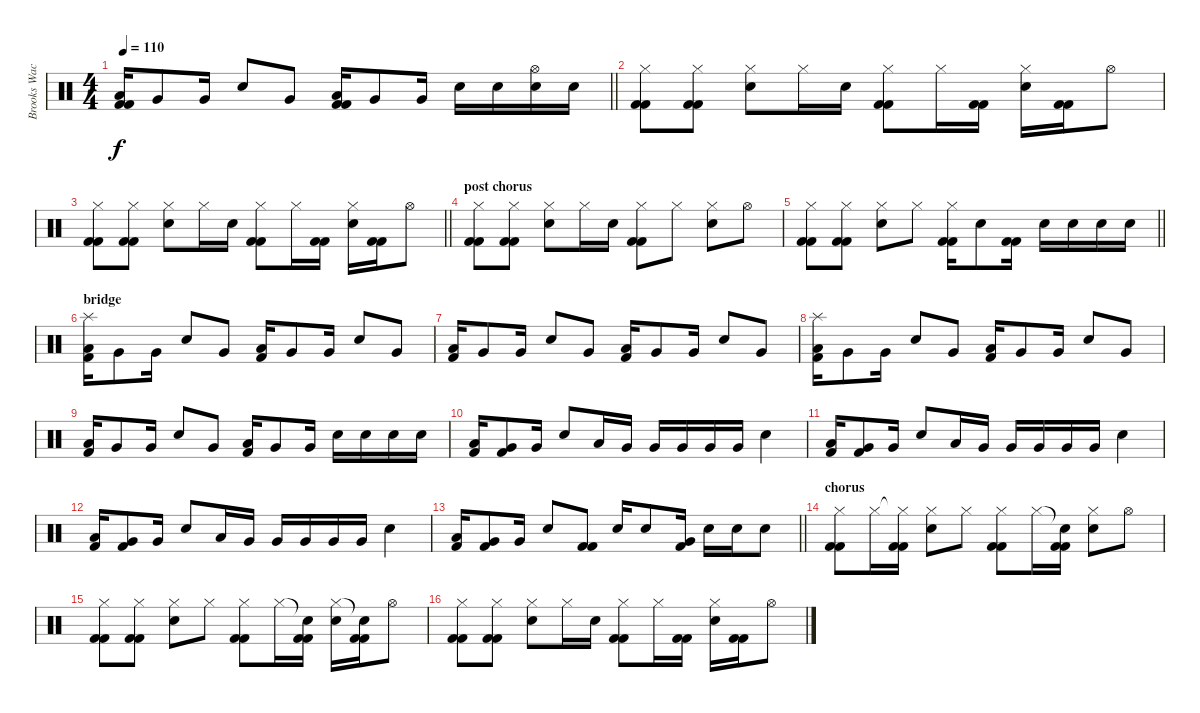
\track ("Brooks Wackerman" "Brooks Wac") {instrument percussion}
\staff {score}
\articulation defaults
\ts (4 4)
\tempo 110
\clef neutral
\barLineRight lightlight
\ks c
("Low Tom (hit)" "Kick (hit) 2" "Kick (hit) 2").16{dy f} "Very Low Tom (hit)".8 "Very Low Tom (hit)".16 "Snare (hit) 2".8 "Very Low Tom (hit)".8 ("Low Tom (hit)" "Kick (hit) 2" "Kick (hit) 2").16 "Very Low Tom (hit)".8 "Very Low Tom (hit)".16 "Snare (hit) 2".16 "Snare (hit) 2".16 ("Hi-Hat (open)" "Snare (hit) 2").16 "Snare (hit) 2".16 |
("Hi-Hat (closed)" "Kick (hit) 2" "Kick (hit) 2").8 ("Hi-Hat (closed)" "Kick (hit) 2" "Kick (hit) 2").8 ("Hi-Hat (closed)" "Snare (hit) 2").8 "Hi-Hat (closed)".16 "Snare (hit) 2".16 ("Hi-Hat (closed)" "Kick (hit) 2" "Kick (hit) 2").8 "Hi-Hat (closed)".16 ("Kick (hit) 2" "Kick (hit) 2").16 ("Hi-Hat (closed)" "Snare (hit) 2").16 ("Kick (hit) 2" "Kick (hit) 2").16 "Hi-Hat (open)".8 |
\barLineRight lightlight
("Hi-Hat (closed)" "Kick (hit) 2" "Kick (hit) 2").8 ("Hi-Hat (closed)" "Kick (hit) 2" "Kick (hit) 2").8 ("Hi-Hat (closed)" "Snare (hit) 2").8 "Hi-Hat (closed)".16 "Snare (hit) 2".16 ("Hi-Hat (closed)" "Kick (hit) 2" "Kick (hit) 2").8 "Hi-Hat (closed)".16 ("Kick (hit) 2" "Kick (hit) 2").16 ("Hi-Hat (closed)" "Snare (hit) 2").16 ("Kick (hit) 2" "Kick (hit) 2").16 "Hi-Hat (open)".8 |
\section ("" "post chorus")
("Hi-Hat (closed)" "Kick (hit) 2" "Kick (hit) 2").8 ("Hi-Hat (closed)" "Kick (hit) 2" "Kick (hit) 2").8 ("Hi-Hat (closed)" "Snare (hit) 2").8 "Hi-Hat (closed)".16 "Snare (hit) 2".16 ("Hi-Hat (closed)" "Kick (hit) 2" "Kick (hit) 2").8 "Hi-Hat (closed)".8 ("Hi-Hat (closed)" "Snare (hit) 2").8 "Hi-Hat (open)".8 |
\barLineRight lightlight
("Hi-Hat (closed)" "Kick (hit) 2" "Kick (hit) 2").8 ("Hi-Hat (closed)" "Kick (hit) 2" "Kick (hit) 2").8 ("Hi-Hat (closed)" "Snare (hit) 2").8 "Hi-Hat (closed)".8 ("Hi-Hat (closed)" "Kick (hit) 2" "Kick (hit) 2").16 "Snare (hit) 2".8 ("Kick (hit) 2" "Kick (hit) 2").16 "Snare (hit) 2".16 "Snare (hit) 2".16 "Snare (hit) 2".16 "Snare (hit) 2".16 |
\section ("" "bridge")
("Splash (hit)" "Low Tom (hit)" "Kick (hit) 2").16 "Very Low Tom (hit)".8 "Very Low Tom (hit)".16 "Snare (hit) 2".8 "Very Low Tom (hit)".8 ("Low Tom (hit)" "Kick (hit) 2").16 "Very Low Tom (hit)".8 "Very Low Tom (hit)".16 "Snare (hit) 2".8 "Very Low Tom (hit)".8 |
("Low Tom (hit)" "Kick (hit) 2").16 "Very Low Tom (hit)".8 "Very Low Tom (hit)".16 "Snare (hit) 2".8 "Very Low Tom (hit)".8 ("Low Tom (hit)" "Kick (hit) 2").16 "Very Low Tom (hit)".8 "Very Low Tom (hit)".16 "Snare (hit) 2".8 "Very Low Tom (hit)".8 |
("Splash (hit)" "Low Tom (hit)" "Kick (hit) 2").16 "Very Low Tom (hit)".8 "Very Low Tom (hit)".16 "Snare (hit) 2".8 "Very Low Tom (hit)".8 ("Low Tom (hit)" "Kick (hit) 2").16 "Very Low Tom (hit)".8 "Very Low Tom (hit)".16 "Snare (hit) 2".8 "Very Low Tom (hit)".8 |
("Low Tom (hit)" "Kick (hit) 2").16 "Very Low Tom (hit)".8 "Very Low Tom (hit)".16 "Snare (hit) 2".8 "Very Low Tom (hit)".8 ("Low Tom (hit)" "Kick (hit) 2").16 "Very Low Tom (hit)".8 "Very Low Tom (hit)".16 "Snare (hit) 2".16 "Snare (hit) 2".16 "Snare (hit) 2".16 "Snare (hit) 2".16 |
("Low Tom (hit)" "Kick (hit) 2").16 ("Very Low Tom (hit)" "Kick (hit) 2").8 "Very Low Tom (hit)".16 "Snare (hit) 2".8 "Low Tom (hit)".16 "Very Low Tom (hit)".16 "Very Low Tom (hit)".16 "Very Low Tom (hit)".16 "Very Low Tom (hit)".16 "Very Low Tom (hit)".16 "Snare (hit) 2".4 |
("Low Tom (hit)" "Kick (hit) 2").16 ("Very Low Tom (hit)" "Kick (hit) 2").8 "Very Low Tom (hit)".16 "Snare (hit) 2".8 "Low Tom (hit)".16 "Very Low Tom (hit)".16 "Very Low Tom (hit)".16 "Very Low Tom (hit)".16 "Very Low Tom (hit)".16 "Very Low Tom (hit)".16 "Snare (hit) 2".4 |
("Low Tom (hit)" "Kick (hit) 2").16 ("Very Low Tom (hit)" "Kick (hit) 2").8 "Very Low Tom (hit)".16 "Snare (hit) 2".8 "Low Tom (hit)".16 "Very Low Tom (hit)".16 "Very Low Tom (hit)".16 "Very Low Tom (hit)".16 "Very Low Tom (hit)".16 "Very Low Tom (hit)".16 "Snare (hit) 2".4 |
\barLineRight lightlight
("Low Tom (hit)" "Kick (hit) 2").16 ("Very Low Tom (hit)" "Kick (hit) 2").8 "Very Low Tom (hit)".16 "Snare (hit) 2".8 ("Kick (hit) 2" "Kick (hit) 2").8 "Snare (hit) 2".16 "Snare (hit) 2".8 ("Very Low Tom (hit)" "Kick (hit) 2").16 "Snare (hit) 2".16 "Snare (hit) 2".16 "Snare (hit) 2".8 |
\section ("" "chorus")
("Hi-Hat (closed)" "Kick (hit) 2" "Kick (hit) 2").8 "Hi-Hat (closed)".16 ("Hi-Hat (closed)"{t} "Kick (hit) 2" "Kick (hit) 2").16 ("Hi-Hat (closed)" "Snare (hit) 2").8 "Hi-Hat (closed)".8 ("Hi-Hat (closed)" "Kick (hit) 2" "Kick (hit) 2").8 "Hi-Hat (closed)".16 ("Snare (hit)"{t} "Kick (hit) 2" "Kick (hit) 2").16 ("Hi-Hat (closed)" "Snare (hit) 2").8 "Hi-Hat (open)".8 |
("Hi-Hat (closed)" "Kick (hit) 2" "Kick (hit) 2").8 ("Hi-Hat (closed)" "Kick (hit) 2" "Kick (hit) 2").8 ("Hi-Hat (closed)" "Snare (hit) 2").8 "Hi-Hat (closed)".8 ("Hi-Hat (closed)" "Kick (hit) 2" "Kick (hit) 2").8 "Hi-Hat (closed)".16 ("Snare (hit)"{t} "Kick (hit) 2" "Kick (hit) 2").16 ("Hi-Hat (closed)" "Snare (hit) 2").16 ("Snare (hit)"{t} "Kick (hit) 2" "Kick (hit) 2").16 "Hi-Hat (open)".8 |
("Hi-Hat (closed)" "Kick (hit) 2" "Kick (hit) 2").8 ("Hi-Hat (closed)" "Kick (hit) 2" "Kick (hit) 2").8 ("Hi-Hat (closed)" "Snare (hit) 2").8 "Hi-Hat (closed)".16 "Snare (hit) 2".16 ("Hi-Hat (closed)" "Kick (hit) 2" "Kick (hit) 2").8 "Hi-Hat (closed)".16 ("Kick (hit) 2" "Kick (hit) 2").16 ("Hi-Hat (closed)" "Snare (hit) 2").16 ("Kick (hit) 2" "Kick (hit) 2").16 "Hi-Hat (open)".8
